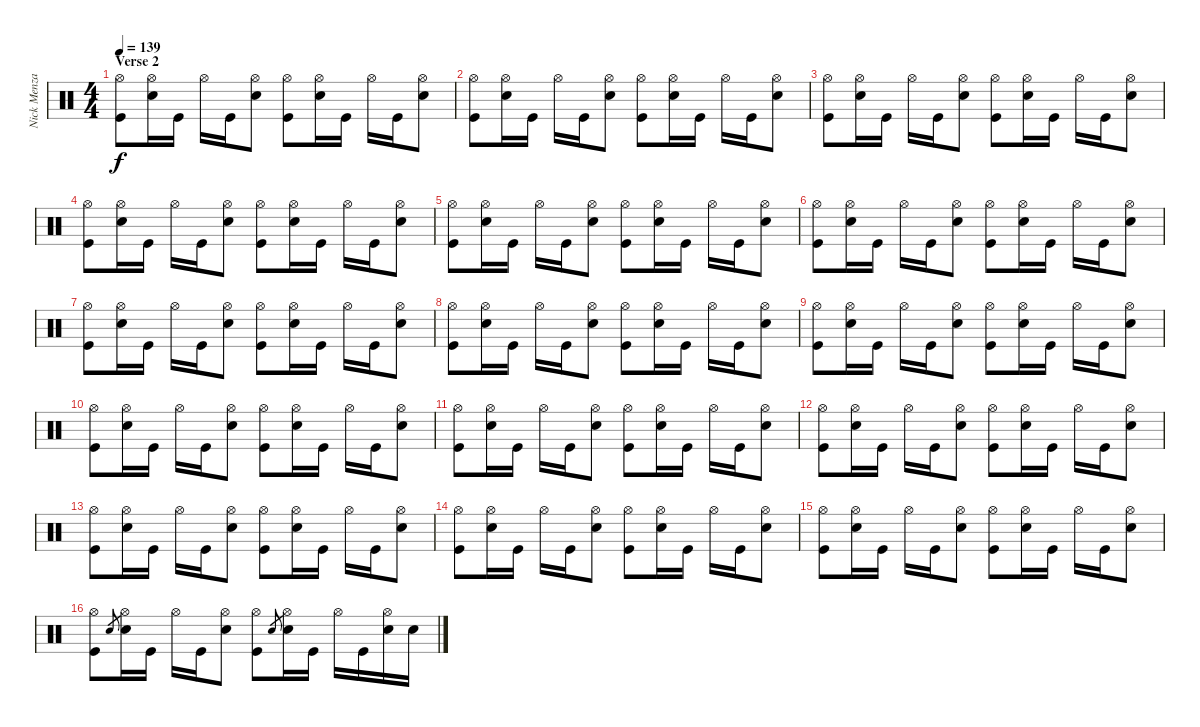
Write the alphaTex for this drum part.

\track ("Nick Menza" "Nick Menza") {instrument percussion}
\staff {score}
\articulation defaults
\ts (4 4)
\section ("" "Verse 2")
\tempo 139
\clef neutral
\ks c
("Hi-Hat (open)" "Kick (hit)").8{dy f} ("Hi-Hat (open)" "Snare (hit) 2").16 "Kick (hit)".16 "Hi-Hat (open)".16 "Kick (hit)".16 ("Hi-Hat (open)" "Snare (hit) 2").8 ("Hi-Hat (open)" "Kick (hit)").8 ("Hi-Hat (open)" "Snare (hit) 2").16 "Kick (hit)".16 "Hi-Hat (open)".16 "Kick (hit)".16 ("Hi-Hat (open)" "Snare (hit) 2").8 |
("Hi-Hat (open)" "Kick (hit)").8 ("Hi-Hat (open)" "Snare (hit) 2").16 "Kick (hit)".16 "Hi-Hat (open)".16 "Kick (hit)".16 ("Hi-Hat (open)" "Snare (hit) 2").8 ("Hi-Hat (open)" "Kick (hit)").8 ("Hi-Hat (open)" "Snare (hit) 2").16 "Kick (hit)".16 "Hi-Hat (open)".16 "Kick (hit)".16 ("Hi-Hat (open)" "Snare (hit) 2").8 |
("Hi-Hat (open)" "Kick (hit)").8 ("Hi-Hat (open)" "Snare (hit) 2").16 "Kick (hit)".16 "Hi-Hat (open)".16 "Kick (hit)".16 ("Hi-Hat (open)" "Snare (hit) 2").8 ("Hi-Hat (open)" "Kick (hit)").8 ("Hi-Hat (open)" "Snare (hit) 2").16 "Kick (hit)".16 "Hi-Hat (open)".16 "Kick (hit)".16 ("Hi-Hat (open)" "Snare (hit) 2").8 |
("Hi-Hat (open)" "Kick (hit)").8 ("Hi-Hat (open)" "Snare (hit) 2").16 "Kick (hit)".16 "Hi-Hat (open)".16 "Kick (hit)".16 ("Hi-Hat (open)" "Snare (hit) 2").8 ("Hi-Hat (open)" "Kick (hit)").8 ("Hi-Hat (open)" "Snare (hit) 2").16 "Kick (hit)".16 "Hi-Hat (open)".16 "Kick (hit)".16 ("Hi-Hat (open)" "Snare (hit) 2").8 |
("Hi-Hat (open)" "Kick (hit)").8 ("Hi-Hat (open)" "Snare (hit) 2").16 "Kick (hit)".16 "Hi-Hat (open)".16 "Kick (hit)".16 ("Hi-Hat (open)" "Snare (hit) 2").8 ("Hi-Hat (open)" "Kick (hit)").8 ("Hi-Hat (open)" "Snare (hit) 2").16 "Kick (hit)".16 "Hi-Hat (open)".16 "Kick (hit)".16 ("Hi-Hat (open)" "Snare (hit) 2").8 |
("Hi-Hat (open)" "Kick (hit)").8 ("Hi-Hat (open)" "Snare (hit) 2").16 "Kick (hit)".16 "Hi-Hat (open)".16 "Kick (hit)".16 ("Hi-Hat (open)" "Snare (hit) 2").8 ("Hi-Hat (open)" "Kick (hit)").8 ("Hi-Hat (open)" "Snare (hit) 2").16 "Kick (hit)".16 "Hi-Hat (open)".16 "Kick (hit)".16 ("Hi-Hat (open)" "Snare (hit) 2").8 |
("Hi-Hat (open)" "Kick (hit)").8 ("Hi-Hat (open)" "Snare (hit) 2").16 "Kick (hit)".16 "Hi-Hat (open)".16 "Kick (hit)".16 ("Hi-Hat (open)" "Snare (hit) 2").8 ("Hi-Hat (open)" "Kick (hit)").8 ("Hi-Hat (open)" "Snare (hit) 2").16 "Kick (hit)".16 "Hi-Hat (open)".16 "Kick (hit)".16 ("Hi-Hat (open)" "Snare (hit) 2").8 |
("Hi-Hat (open)" "Kick (hit)").8 ("Hi-Hat (open)" "Snare (hit) 2").16 "Kick (hit)".16 "Hi-Hat (open)".16 "Kick (hit)".16 ("Hi-Hat (open)" "Snare (hit) 2").8 ("Hi-Hat (open)" "Kick (hit)").8 ("Hi-Hat (open)" "Snare (hit) 2").16 "Kick (hit)".16 "Hi-Hat (open)".16 "Kick (hit)".16 ("Hi-Hat (open)" "Snare (hit) 2").8 |
("Hi-Hat (open)" "Kick (hit)").8 ("Hi-Hat (open)" "Snare (hit) 2").16 "Kick (hit)".16 "Hi-Hat (open)".16 "Kick (hit)".16 ("Hi-Hat (open)" "Snare (hit) 2").8 ("Hi-Hat (open)" "Kick (hit)").8 ("Hi-Hat (open)" "Snare (hit) 2").16 "Kick (hit)".16 "Hi-Hat (open)".16 "Kick (hit)".16 ("Hi-Hat (open)" "Snare (hit) 2").8 |
("Hi-Hat (open)" "Kick (hit)").8 ("Hi-Hat (open)" "Snare (hit) 2").16 "Kick (hit)".16 "Hi-Hat (open)".16 "Kick (hit)".16 ("Hi-Hat (open)" "Snare (hit) 2").8 ("Hi-Hat (open)" "Kick (hit)").8 ("Hi-Hat (open)" "Snare (hit) 2").16 "Kick (hit)".16 "Hi-Hat (open)".16 "Kick (hit)".16 ("Hi-Hat (open)" "Snare (hit) 2").8 |
("Hi-Hat (open)" "Kick (hit)").8 ("Hi-Hat (open)" "Snare (hit) 2").16 "Kick (hit)".16 "Hi-Hat (open)".16 "Kick (hit)".16 ("Hi-Hat (open)" "Snare (hit) 2").8 ("Hi-Hat (open)" "Kick (hit)").8 ("Hi-Hat (open)" "Snare (hit) 2").16 "Kick (hit)".16 "Hi-Hat (open)".16 "Kick (hit)".16 ("Hi-Hat (open)" "Snare (hit) 2").8 |
("Hi-Hat (open)" "Kick (hit)").8 ("Hi-Hat (open)" "Snare (hit) 2").16 "Kick (hit)".16 "Hi-Hat (open)".16 "Kick (hit)".16 ("Hi-Hat (open)" "Snare (hit) 2").8 ("Hi-Hat (open)" "Kick (hit)").8 ("Hi-Hat (open)" "Snare (hit) 2").16 "Kick (hit)".16 "Hi-Hat (open)".16 "Kick (hit)".16 ("Hi-Hat (open)" "Snare (hit) 2").8 |
("Hi-Hat (open)" "Kick (hit)").8 ("Hi-Hat (open)" "Snare (hit) 2").16 "Kick (hit)".16 "Hi-Hat (open)".16 "Kick (hit)".16 ("Hi-Hat (open)" "Snare (hit) 2").8 ("Hi-Hat (open)" "Kick (hit)").8 ("Hi-Hat (open)" "Snare (hit) 2").16 "Kick (hit)".16 "Hi-Hat (open)".16 "Kick (hit)".16 ("Hi-Hat (open)" "Snare (hit) 2").8 |
("Hi-Hat (open)" "Kick (hit)").8 ("Hi-Hat (open)" "Snare (hit) 2").16 "Kick (hit)".16 "Hi-Hat (open)".16 "Kick (hit)".16 ("Hi-Hat (open)" "Snare (hit) 2").8 ("Hi-Hat (open)" "Kick (hit)").8 ("Hi-Hat (open)" "Snare (hit) 2").16 "Kick (hit)".16 "Hi-Hat (open)".16 "Kick (hit)".16 ("Hi-Hat (open)" "Snare (hit) 2").8 |
("Hi-Hat (open)" "Kick (hit)").8 ("Hi-Hat (open)" "Snare (hit) 2").16 "Kick (hit)".16 "Hi-Hat (open)".16 "Kick (hit)".16 ("Hi-Hat (open)" "Snare (hit) 2").8 ("Hi-Hat (open)" "Kick (hit)").8 ("Hi-Hat (open)" "Snare (hit) 2").16 "Kick (hit)".16 "Hi-Hat (open)".16 "Kick (hit)".16 ("Hi-Hat (open)" "Snare (hit) 2").8 |
("Hi-Hat (open)" "Kick (hit)").8 "Snare (hit) 2".8{gr} ("Hi-Hat (open)" "Snare (hit) 2").16 "Kick (hit)".16 "Hi-Hat (open)".16 "Kick (hit)".16 ("Hi-Hat (open)" "Snare (hit) 2").8 ("Hi-Hat (open)" "Kick (hit)").8 "Snare (hit) 2".8{gr} ("Hi-Hat (open)" "Snare (hit) 2").16 "Kick (hit)".16 "Hi-Hat (open)".16 "Kick (hit)".16 ("Hi-Hat (open)" "Snare (hit) 2").16 "Snare (hit) 2".16
